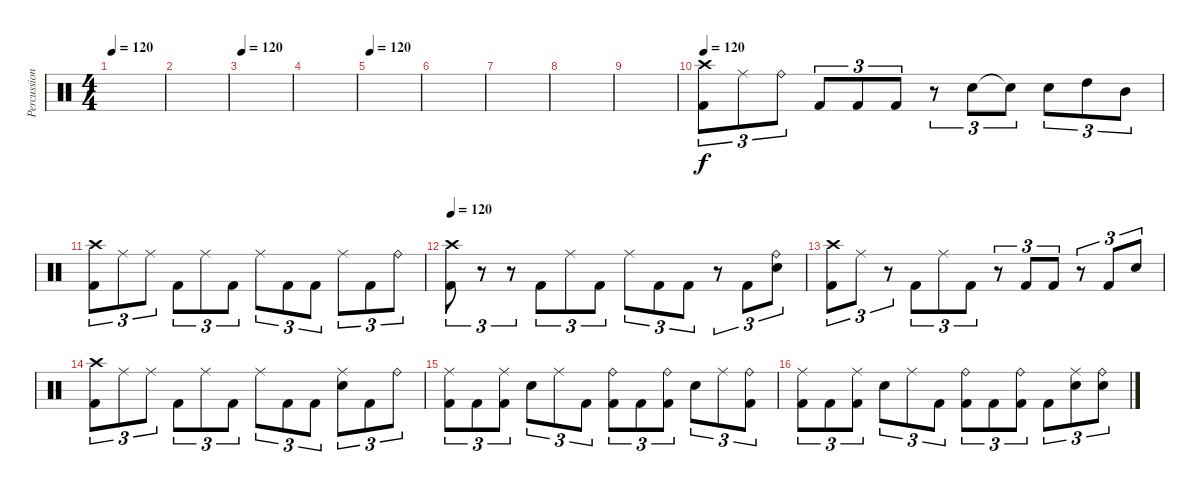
\track ("Percussioni" "Percussion") {instrument percussion}
\staff {score}
\articulation defaults
\ts (4 4)
\tempo 120
\clef neutral
\ks c
|
|
\tempo 120
|
|
\tempo 120
|
|
|
|
|
\tempo 120
("Crash high (hit)" "Kick (hit) 2").8{tu (3 2)} "Ride (middle)".8{tu (3 2)} "Ride (bell)".8{tu (3 2)} "Kick (hit) 2".8{tu (3 2)} "Kick (hit) 2".8{tu (3 2)} "Kick (hit) 2".8{tu (3 2)} r.8{tu (3 2)} "Electric Snare (hit)".8{tu (3 2)} "Electric Snare (hit)"{t}.8{tu (3 2)} "Electric Snare (hit)".8{tu (3 2)} "High Tom (hit)".8{tu (3 2)} "Mid Tom (hit)".8{tu (3 2)} |
("Crash high (hit)" "Kick (hit) 2").8{tu (3 2)} "Ride (middle)".8{tu (3 2)} "Ride (middle)".8{tu (3 2)} "Kick (hit) 2".8{tu (3 2)} "Ride (middle)".8{tu (3 2)} "Kick (hit) 2".8{tu (3 2)} "Ride (middle)".8{tu (3 2)} "Kick (hit) 2".8{tu (3 2)} "Kick (hit) 2".8{tu (3 2)} "Ride (middle)".8{tu (3 2)} "Kick (hit) 2".8{tu (3 2)} "Ride (bell)".8{tu (3 2)} |
\tempo 120
("Crash high (hit)" "Kick (hit) 2").8{tu (3 2)} r.8{tu (3 2)} r.8{tu (3 2)} "Kick (hit) 2".8{tu (3 2)} "Ride (middle)".8{tu (3 2)} "Kick (hit) 2".8{tu (3 2)} "Ride (middle)".8{tu (3 2)} "Kick (hit) 2".8{tu (3 2)} "Kick (hit) 2".8{tu (3 2)} r.8{tu (3 2)} "Kick (hit) 2".8{tu (3 2)} ("Ride (bell)" "Electric Snare (hit)").8{tu (3 2)} |
("Crash high (hit)" "Kick (hit) 2").8{tu (3 2)} "Ride (middle)".8{tu (3 2)} r.8{tu (3 2)} "Kick (hit) 2".8{tu (3 2)} "Ride (middle)".8{tu (3 2)} "Kick (hit) 2".8{tu (3 2)} r.8{tu (3 2)} "Kick (hit) 2".8{tu (3 2)} "Kick (hit) 2".8{tu (3 2)} r.8{tu (3 2)} "Kick (hit) 2".8{tu (3 2)} "Electric Snare (hit)".8{tu (3 2)} |
("Crash high (hit)" "Kick (hit) 2").8{tu (3 2)} "Ride (middle)".8{tu (3 2)} "Ride (middle)".8{tu (3 2)} "Kick (hit) 2".8{tu (3 2)} "Ride (middle)".8{tu (3 2)} "Kick (hit) 2".8{tu (3 2)} "Ride (middle)".8{tu (3 2)} "Kick (hit) 2".8{tu (3 2)} "Kick (hit) 2".8{tu (3 2)} ("Ride (middle)" "Electric Snare (hit)").8{tu (3 2)} "Kick (hit) 2".8{tu (3 2)} "Ride (bell)".8{tu (3 2)} |
("Ride (middle)" "Kick (hit) 2").8{tu (3 2)} "Kick (hit) 2".8{tu (3 2)} ("Ride (middle)" "Kick (hit) 2").8{tu (3 2)} "Electric Snare (hit)".8{tu (3 2)} "Ride (middle)".8{tu (3 2)} "Kick (hit) 2".8{tu (3 2)} ("Ride (bell)" "Kick (hit) 2").8{tu (3 2)} "Kick (hit) 2".8{tu (3 2)} ("Ride (bell)" "Kick (hit) 2").8{tu (3 2)} "Electric Snare (hit)".8{tu (3 2)} "Ride (middle)".8{tu (3 2)} ("Kick (hit) 2" "Ride (bell)").8{tu (3 2)} |
("Ride (middle)" "Kick (hit) 2").8{tu (3 2)} "Kick (hit) 2".8{tu (3 2)} ("Ride (middle)" "Kick (hit) 2").8{tu (3 2)} "Electric Snare (hit)".8{tu (3 2)} "Ride (middle)".8{tu (3 2)} "Kick (hit) 2".8{tu (3 2)} ("Ride (bell)" "Kick (hit) 2").8{tu (3 2)} "Kick (hit) 2".8{tu (3 2)} ("Ride (bell)" "Kick (hit) 2").8{tu (3 2)} "Kick (hit) 2".8{tu (3 2)} ("Electric Snare (hit)" "Ride (middle)").8{tu (3 2)} ("Electric Snare (hit)" "Ride (bell)").8{tu (3 2)}
